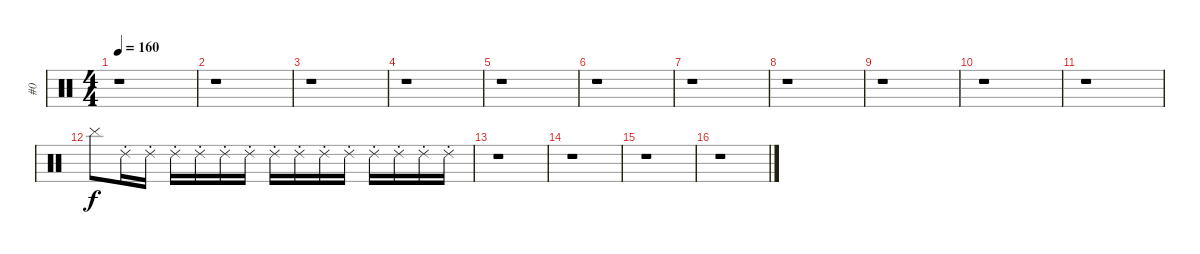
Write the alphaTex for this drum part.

\track ("#0" "#0") {instrument percussion}
\staff {score}
\articulation defaults
\ts (4 4)
\tempo 160
\clef neutral
\ks c
r.1{dy f} |
r.1 |
r.1 |
r.1 |
r.1 |
r.1 |
r.1 |
r.1 |
r.1 |
r.1 |
r.1 |
"Cymbal (hit)".8 "Ride (choke) 2".16 "Ride (choke) 2".16 "Ride (choke) 2".16 "Ride (choke) 2".16 "Ride (choke) 2".16 "Ride (choke) 2".16 "Ride (choke) 2".16 "Ride (choke) 2".16 "Ride (choke) 2".16 "Ride (choke) 2".16 "Ride (choke) 2".16 "Ride (choke) 2".16 "Ride (choke) 2".16 "Ride (choke) 2".16 |
r.1 |
r.1 |
r.1 |
r.1
